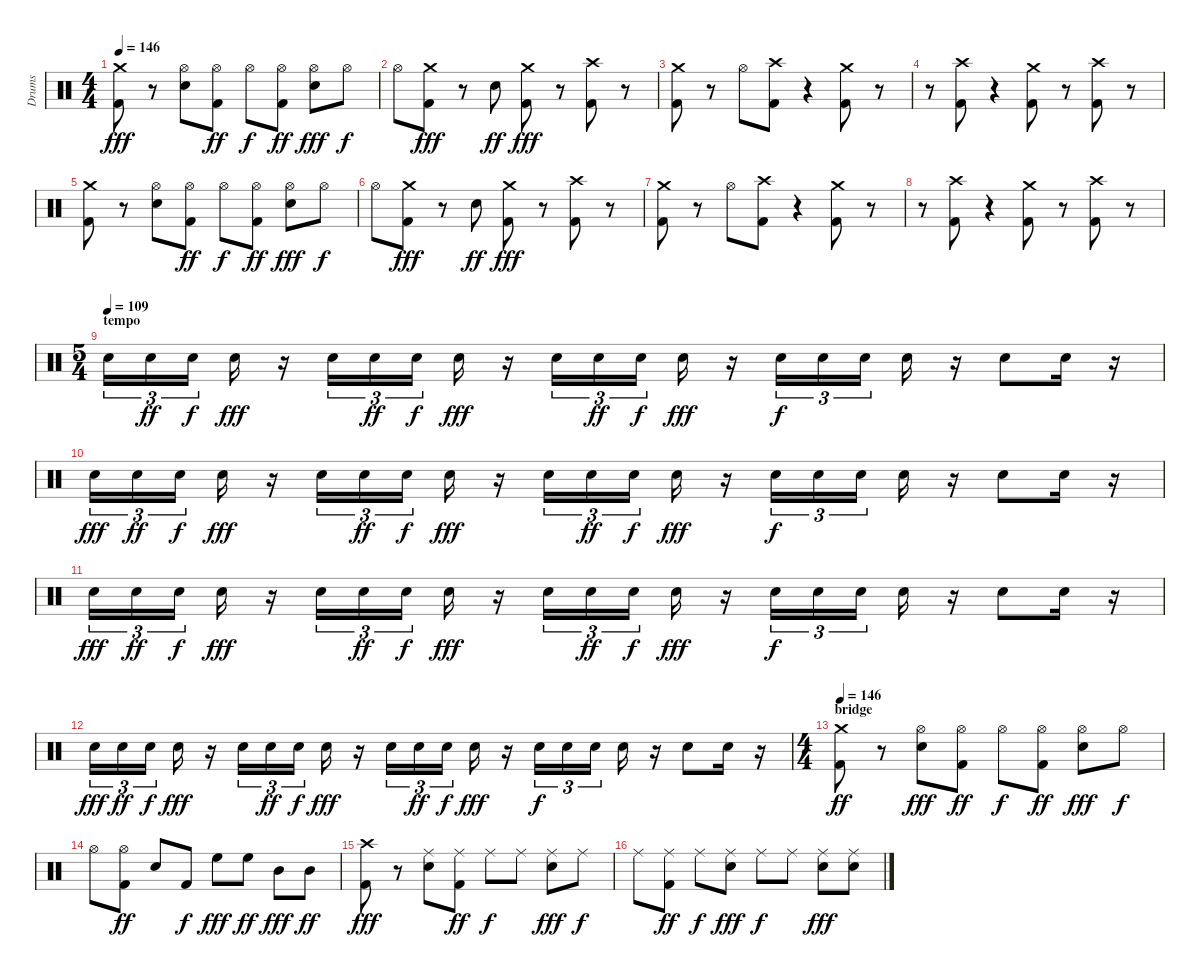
\track ("Drums" "Drums") {instrument percussion}
\staff {score}
\articulation defaults
\ts (4 4)
\tempo 146
\clef neutral
\ks c
("Kick (hit) 2" "Crash medium (hit)").8{dy fff} r.8 ("Snare (hit) 2" "Hi-Hat (open)").8 ("Kick (hit) 2" "Hi-Hat (open)").8{dy ff} "Hi-Hat (open)".8{dy f} ("Kick (hit) 2" "Hi-Hat (open)").8{dy ff} ("Snare (hit) 2" "Hi-Hat (open)").8{dy fff} "Hi-Hat (open)".8{dy f} |
"Hi-Hat (open)".8 ("Kick (hit) 2" "Crash medium (hit)").8{dy fff} r.8 "Snare (hit) 2".8{dy ff} ("Kick (hit) 2" "Crash medium (hit)").8{dy fff} r.8 ("Kick (hit) 2" "Crash high (hit)").8 r.8 |
("Kick (hit) 2" "Crash medium (hit)").8 r.8 "Hi-Hat (open)".8 ("Kick (hit) 2" "Crash high (hit)").8 r.4 ("Kick (hit) 2" "Crash medium (hit)").8 r.8 |
r.8 ("Kick (hit) 2" "Crash high (hit)").8 r.4 ("Kick (hit) 2" "Crash medium (hit)").8 r.8 ("Kick (hit) 2" "Crash high (hit)").8 r.8 |
("Kick (hit) 2" "Crash medium (hit)").8 r.8 ("Snare (hit) 2" "Hi-Hat (open)").8 ("Kick (hit) 2" "Hi-Hat (open)").8{dy ff} "Hi-Hat (open)".8{dy f} ("Kick (hit) 2" "Hi-Hat (open)").8{dy ff} ("Snare (hit) 2" "Hi-Hat (open)").8{dy fff} "Hi-Hat (open)".8{dy f} |
"Hi-Hat (open)".8 ("Kick (hit) 2" "Crash medium (hit)").8{dy fff} r.8 "Snare (hit) 2".8{dy ff} ("Kick (hit) 2" "Crash medium (hit)").8{dy fff} r.8 ("Kick (hit) 2" "Crash high (hit)").8 r.8 |
("Kick (hit) 2" "Crash medium (hit)").8 r.8 "Hi-Hat (open)".8 ("Kick (hit) 2" "Crash high (hit)").8 r.4 ("Kick (hit) 2" "Crash medium (hit)").8 r.8 |
r.8 ("Kick (hit) 2" "Crash high (hit)").8 r.4 ("Kick (hit) 2" "Crash medium (hit)").8 r.8 ("Kick (hit) 2" "Crash high (hit)").8 r.8 |
\ts (5 4)
\section ("" "tempo")
\tempo (109)
"Snare (hit) 2".16{tu (3 2)} "Snare (hit) 2".16{tu (3 2) dy ff} "Snare (hit) 2".16{tu (3 2) dy f} "Snare (hit) 2".16{dy fff} r.16 "Snare (hit) 2".16{tu (3 2)} "Snare (hit) 2".16{tu (3 2) dy ff} "Snare (hit) 2".16{tu (3 2) dy f} "Snare (hit) 2".16{dy fff} r.16 "Snare (hit) 2".16{tu (3 2)} "Snare (hit) 2".16{tu (3 2) dy ff} "Snare (hit) 2".16{tu (3 2) dy f} "Snare (hit) 2".16{dy fff} r.16 "Snare (hit) 2".16{tu (3 2) dy f} "Snare (hit) 2".16{tu (3 2)} "Snare (hit) 2".16{tu (3 2)} "Snare (hit) 2".16 r.16 "Snare (hit) 2".8 "Snare (hit) 2".16 r.16 |
"Snare (hit) 2".16{tu (3 2) dy fff} "Snare (hit) 2".16{tu (3 2) dy ff} "Snare (hit) 2".16{tu (3 2) dy f} "Snare (hit) 2".16{dy fff} r.16 "Snare (hit) 2".16{tu (3 2)} "Snare (hit) 2".16{tu (3 2) dy ff} "Snare (hit) 2".16{tu (3 2) dy f} "Snare (hit) 2".16{dy fff} r.16 "Snare (hit) 2".16{tu (3 2)} "Snare (hit) 2".16{tu (3 2) dy ff} "Snare (hit) 2".16{tu (3 2) dy f} "Snare (hit) 2".16{dy fff} r.16 "Snare (hit) 2".16{tu (3 2) dy f} "Snare (hit) 2".16{tu (3 2)} "Snare (hit) 2".16{tu (3 2)} "Snare (hit) 2".16 r.16 "Snare (hit) 2".8 "Snare (hit) 2".16 r.16 |
"Snare (hit) 2".16{tu (3 2) dy fff} "Snare (hit) 2".16{tu (3 2) dy ff} "Snare (hit) 2".16{tu (3 2) dy f} "Snare (hit) 2".16{dy fff} r.16 "Snare (hit) 2".16{tu (3 2)} "Snare (hit) 2".16{tu (3 2) dy ff} "Snare (hit) 2".16{tu (3 2) dy f} "Snare (hit) 2".16{dy fff} r.16 "Snare (hit) 2".16{tu (3 2)} "Snare (hit) 2".16{tu (3 2) dy ff} "Snare (hit) 2".16{tu (3 2) dy f} "Snare (hit) 2".16{dy fff} r.16 "Snare (hit) 2".16{tu (3 2) dy f} "Snare (hit) 2".16{tu (3 2)} "Snare (hit) 2".16{tu (3 2)} "Snare (hit) 2".16 r.16 "Snare (hit) 2".8 "Snare (hit) 2".16 r.16 |
"Snare (hit) 2".16{tu (3 2) dy fff} "Snare (hit) 2".16{tu (3 2) dy ff} "Snare (hit) 2".16{tu (3 2) dy f} "Snare (hit) 2".16{dy fff} r.16 "Snare (hit) 2".16{tu (3 2)} "Snare (hit) 2".16{tu (3 2) dy ff} "Snare (hit) 2".16{tu (3 2) dy f} "Snare (hit) 2".16{dy fff} r.16 "Snare (hit) 2".16{tu (3 2)} "Snare (hit) 2".16{tu (3 2) dy ff} "Snare (hit) 2".16{tu (3 2) dy f} "Snare (hit) 2".16{dy fff} r.16 "Snare (hit) 2".16{tu (3 2) dy f} "Snare (hit) 2".16{tu (3 2)} "Snare (hit) 2".16{tu (3 2)} "Snare (hit) 2".16 r.16 "Snare (hit) 2".8 "Snare (hit) 2".16 r.16 |
\ts (4 4)
\section ("" "bridge")
\tempo 146
("Kick (hit) 2" "Crash medium (hit)").8{dy ff} r.8 ("Snare (hit) 2" "Hi-Hat (open)").8{dy fff} ("Kick (hit) 2" "Hi-Hat (open)").8{dy ff} "Hi-Hat (open)".8{dy f} ("Kick (hit) 2" "Hi-Hat (open)").8{dy ff} ("Snare (hit) 2" "Hi-Hat (open)").8{dy fff} "Hi-Hat (open)".8{dy f} |
"Hi-Hat (open)".8 ("Kick (hit) 2" "Hi-Hat (open)").8{dy ff} "Snare (hit) 2".8 "Kick (hit) 2".8{dy f} "High Floor Tom (hit)".8{dy fff} "High Floor Tom (hit)".8{dy ff} "Mid Tom (hit)".8{dy fff} "Mid Tom (hit)".8{dy ff} |
("Kick (hit) 2" "Crash high (hit)").8{dy fff} r.8 ("Snare (hit) 2" "Ride (middle)").8 ("Kick (hit) 2" "Ride (middle)").8{dy ff} "Ride (middle)".8{dy f} "Ride (middle)".8 ("Snare (hit) 2" "Ride (middle)").8{dy fff} "Ride (middle)".8{dy f} |
"Ride (middle)".8 ("Kick (hit) 2" "Ride (middle)").8{dy ff} "Ride (middle)".8{dy f} ("Snare (hit) 2" "Ride (middle)").8{dy fff} "Ride (middle)".8{dy f} "Ride (middle)".8 ("Snare (hit) 2" "Ride (middle)").8{dy fff} ("Snare (hit) 2" "Ride (middle)").8
